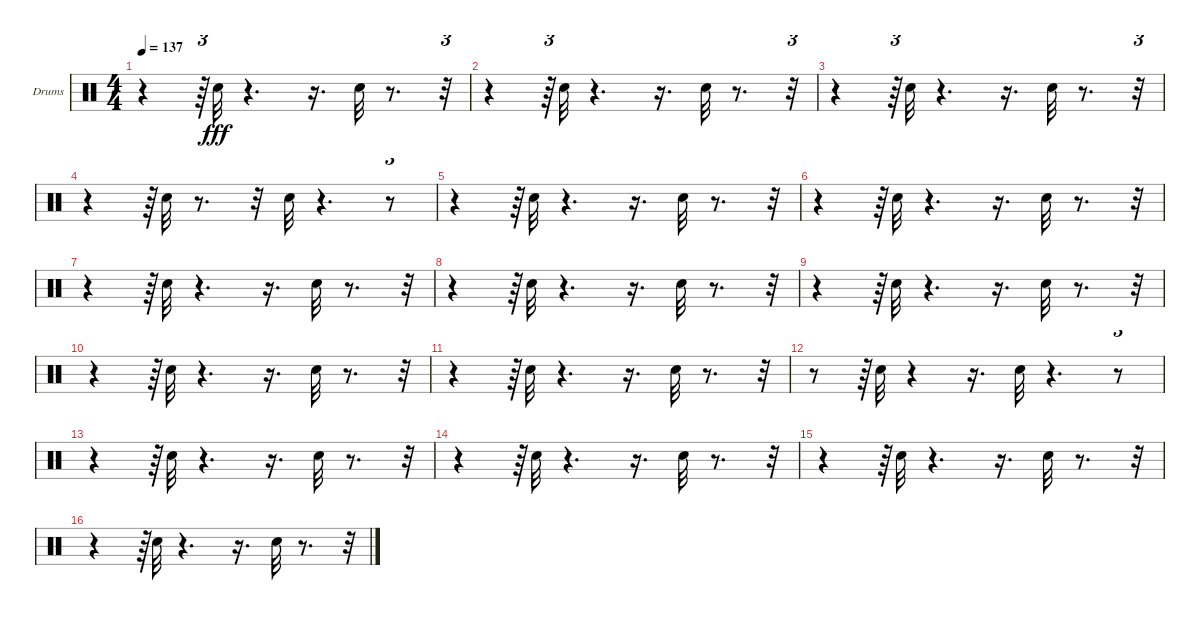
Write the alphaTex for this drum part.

\bracketExtendMode groupsimilarinstruments
\firstSystemTrackNameOrientation horizontal
\otherSystemsTrackNameOrientation horizontal
\track ("Drumkit" "Drums") {instrument percussion}
\staff {score}
\articulation defaults
\ts (4 4)
\tempo 137
\clef neutral
\ks c
r.4{dy fff} r.64{tu (3 2)} "Snare (hit) 2".32 r.4{d} r.16{d} "Snare (hit) 2".32 r.8{d} r.32{tu (3 2)} |
r.4 r.64{tu (3 2)} "Snare (hit) 2".32 r.4{d} r.16{d} "Snare (hit) 2".32 r.8{d} r.32{tu (3 2)} |
r.4 r.64{tu (3 2)} "Snare (hit) 2".32 r.4{d} r.16{d} "Snare (hit) 2".32 r.8{d} r.32{tu (3 2)} |
r.4 r.64{tu (3 2)} "Snare (hit) 2".32 r.8{d} r.32 "Snare (hit) 2".32 r.4{d} r.8{tu (3 2)} |
r.4 r.64{tu (3 2)} "Snare (hit) 2".32 r.4{d} r.16{d} "Snare (hit) 2".32 r.8{d} r.32{tu (3 2)} |
r.4 r.64{tu (3 2)} "Snare (hit) 2".32 r.4{d} r.16{d} "Snare (hit) 2".32 r.8{d} r.32{tu (3 2)} |
r.4 r.64{tu (3 2)} "Snare (hit) 2".32 r.4{d} r.16{d} "Snare (hit) 2".32 r.8{d} r.32{tu (3 2)} |
r.4 r.64{tu (3 2)} "Snare (hit) 2".32 r.4{d} r.16{d} "Snare (hit) 2".32 r.8{d} r.32{tu (3 2)} |
r.4 r.64{tu (3 2)} "Snare (hit) 2".32 r.4{d} r.16{d} "Snare (hit) 2".32 r.8{d} r.32{tu (3 2)} |
r.4 r.64{tu (3 2)} "Snare (hit) 2".32 r.4{d} r.16{d} "Snare (hit) 2".32 r.8{d} r.32{tu (3 2)} |
r.4 r.64{tu (3 2)} "Snare (hit) 2".32 r.4{d} r.16{d} "Snare (hit) 2".32 r.8{d} r.32{tu (3 2)} |
r.8 r.64{tu (3 2)} "Snare (hit) 2".32 r.4 r.16{d} "Snare (hit) 2".32 r.4{d} r.8{tu (3 2)} |
r.4 r.64{tu (3 2)} "Snare (hit) 2".32 r.4{d} r.16{d} "Snare (hit) 2".32 r.8{d} r.32{tu (3 2)} |
r.4 r.64{tu (3 2)} "Snare (hit) 2".32 r.4{d} r.16{d} "Snare (hit) 2".32 r.8{d} r.32{tu (3 2)} |
r.4 r.64{tu (3 2)} "Snare (hit) 2".32 r.4{d} r.16{d} "Snare (hit) 2".32 r.8{d} r.32{tu (3 2)} |
r.4 r.64{tu (3 2)} "Snare (hit) 2".32 r.4{d} r.16{d} "Snare (hit) 2".32 r.8{d} r.32{tu (3 2)}
